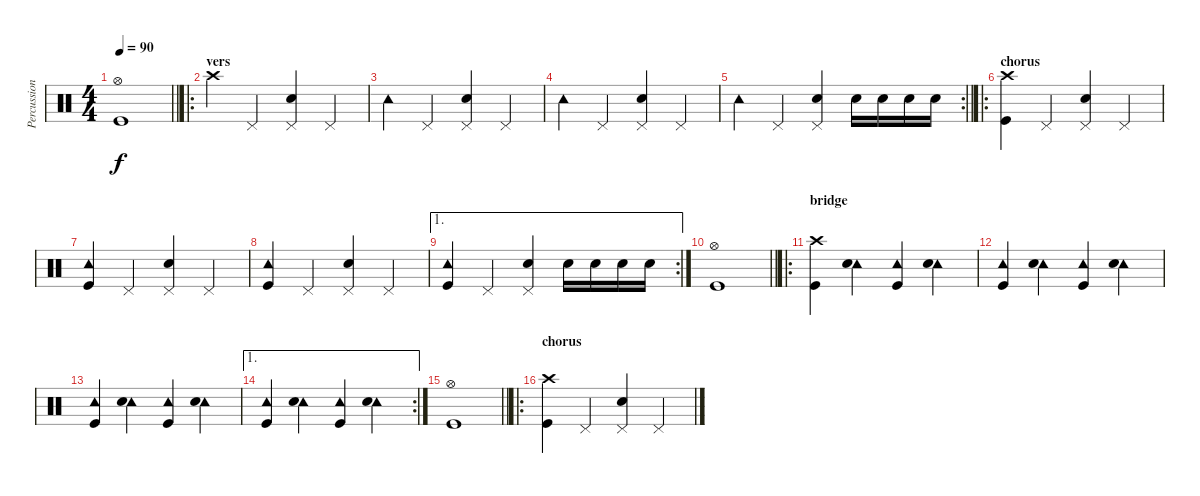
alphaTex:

\track ("Percussion" "Percussion") {instrument percussion}
\staff {score}
\articulation defaults
\ts (4 4)
\tempo 90
\clef neutral
\barLineRight lightlight
\ks c
("Hi-Hat (open)" "Kick (hit)").1{dy f} |
\ro
\section ("" "vers")
"Crash high (hit)".4 "Pedal Hi-Hat (hit)".4 ("Pedal Hi-Hat (hit)" "Snare (hit) 2").4 "Pedal Hi-Hat (hit)".4 |
"Tambourine (hit)".4 "Pedal Hi-Hat (hit)".4 ("Pedal Hi-Hat (hit)" "Snare (hit) 2").4 "Pedal Hi-Hat (hit)".4 |
"Tambourine (hit)".4 "Pedal Hi-Hat (hit)".4 ("Pedal Hi-Hat (hit)" "Snare (hit) 2").4 "Pedal Hi-Hat (hit)".4 |
\rc 2
\barLineRight lightlight "Tambourine (hit)".4 "Pedal Hi-Hat (hit)".4
("Pedal Hi-Hat (hit)" "Snare (hit) 2").4 "Snare (hit) 2".16 "Snare (hit) 2".16 "Snare (hit) 2".16 "Snare (hit) 2".16 |
\ro
\section ("" "chorus")
("Crash high (hit)" "Kick (hit)").4 "Pedal Hi-Hat (hit)".4 ("Pedal Hi-Hat (hit)" "Snare (hit) 2").4 "Pedal Hi-Hat (hit)".4 |
("Tambourine (hit)" "Kick (hit)").4 "Pedal Hi-Hat (hit)".4 ("Pedal Hi-Hat (hit)" "Snare (hit) 2").4 "Pedal Hi-Hat (hit)".4 |
("Tambourine (hit)" "Kick (hit)").4 "Pedal Hi-Hat (hit)".4 ("Pedal Hi-Hat (hit)" "Snare (hit) 2").4 "Pedal Hi-Hat (hit)".4 |
\ae 1
\rc 2
("Tambourine (hit)" "Kick (hit)").4 "Pedal Hi-Hat (hit)".4 ("Pedal Hi-Hat (hit)" "Snare (hit) 2").4 "Snare (hit) 2".16 "Snare (hit) 2".16 "Snare (hit) 2".16 "Snare (hit) 2".16 |
\barLineRight lightlight
("Hi-Hat (open)" "Kick (hit)").1 |
\ro
\section ("" "bridge")
("Crash high (hit)" "Kick (hit)").4 ("Tambourine (hit)" "Snare (hit) 2").4 ("Tambourine (hit)" "Kick (hit)").4 ("Tambourine (hit)" "Snare (hit) 2").4 |
("Tambourine (hit)" "Kick (hit)").4 ("Tambourine (hit)" "Snare (hit) 2").4 ("Tambourine (hit)" "Kick (hit)").4 ("Tambourine (hit)" "Snare (hit) 2").4 |
("Tambourine (hit)" "Kick (hit)").4 ("Tambourine (hit)" "Snare (hit) 2").4 ("Tambourine (hit)" "Kick (hit)").4 ("Tambourine (hit)" "Snare (hit) 2").4 |
\ae 1
\rc 2
("Tambourine (hit)" "Kick (hit)").4 ("Tambourine (hit)" "Snare (hit) 2").4 ("Tambourine (hit)" "Kick (hit)").4 ("Tambourine (hit)" "Snare (hit) 2").4 |
\barLineRight lightlight
("Hi-Hat (open)" "Kick (hit)").1 |
\ro
\section ("" "chorus")
("Crash high (hit)" "Kick (hit)").4 "Pedal Hi-Hat (hit)".4 ("Pedal Hi-Hat (hit)" "Snare (hit) 2").4 "Pedal Hi-Hat (hit)".4
